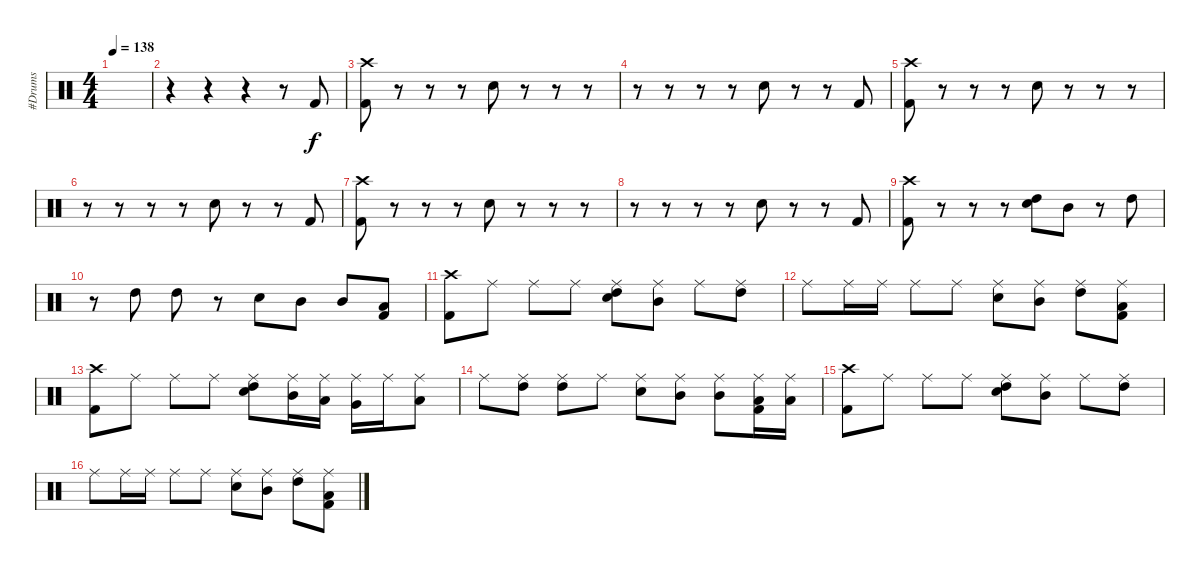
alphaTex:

\track ("#Drums" "#Drums") {instrument percussion}
\staff {score}
\articulation defaults
\ts (4 4)
\tempo 138
\clef neutral
\ks c
|
r.4 r.4 r.4 r.8 "Kick (hit) 2".8 |
("Crash high (hit)" "Kick (hit) 2").8 r.8 r.8 r.8 "Hand Clap (hit)".8 r.8 r.8 r.8 |
r.8 r.8 r.8 r.8 "Hand Clap (hit)".8 r.8 r.8 "Kick (hit) 2".8 |
("Crash high (hit)" "Kick (hit) 2").8 r.8 r.8 r.8 "Hand Clap (hit)".8 r.8 r.8 r.8 |
r.8 r.8 r.8 r.8 "Hand Clap (hit)".8 r.8 r.8 "Kick (hit) 2".8 |
("Crash high (hit)" "Kick (hit) 2").8 r.8 r.8 r.8 "Hand Clap (hit)".8 r.8 r.8 r.8 |
r.8 r.8 r.8 r.8 "Hand Clap (hit)".8 r.8 r.8 "Kick (hit) 2".8 |
("Crash high (hit)" "Kick (hit) 2").8 r.8 r.8 r.8 ("Hand Clap (hit)" "High Tom (hit)").8 "Mid Tom (hit)".8 r.8 "High Tom (hit)".8 |
r.8 "High Tom (hit)".8 "High Tom (hit)".8 r.8 "Hand Clap (hit)".8 "Mid Tom (hit)".8 "Mid Tom (hit)".8 ("Kick (hit) 2" "Low Tom (hit)").8 |
("Crash high (hit)" "Kick (hit) 2").8 "Ride (middle)".8 "Ride (middle)".8 "Ride (middle)".8 ("Ride (middle)" "Hand Clap (hit)" "High Tom (hit)").8 ("Ride (middle)" "Mid Tom (hit)").8 "Ride (middle)".8 ("Ride (middle)" "High Tom (hit)").8 |
"Ride (middle)".8 "Ride (middle)".16 "Ride (middle)".16 "Ride (middle)".8 "Ride (middle)".8 ("Ride (middle)" "Hand Clap (hit)").8 ("Ride (middle)" "Mid Tom (hit)").8 ("Ride (middle)" "High Tom (hit)").8 ("Ride (middle)" "Kick (hit) 2" "Low Tom (hit)").8 |
("Crash high (hit)" "Kick (hit) 2").8 "Ride (middle)".8 "Ride (middle)".8 "Ride (middle)".8 ("Ride (middle)" "Hand Clap (hit)" "High Tom (hit)").8 ("Ride (middle)" "Mid Tom (hit)").16 ("Ride (middle)" "Low Tom (hit)").16 ("Ride (middle)" "Very Low Tom (hit)").16 "Ride (middle)".16 ("Ride (middle)" "Low Floor Tom (hit)").8 |
"Ride (middle)".8 ("Ride (middle)" "High Tom (hit)").8 ("Ride (middle)" "High Tom (hit)").8 "Ride (middle)".8 ("Ride (middle)" "Hand Clap (hit)").8 ("Ride (middle)" "Mid Tom (hit)").8 ("Ride (middle)" "Mid Tom (hit)").8 ("Ride (middle)" "Kick (hit) 2" "Low Tom (hit)").16 ("Ride (middle)" "Low Tom (hit)").16 |
("Crash high (hit)" "Kick (hit) 2").8 "Ride (middle)".8 "Ride (middle)".8 "Ride (middle)".8 ("Ride (middle)" "Hand Clap (hit)" "High Tom (hit)").8 ("Ride (middle)" "Mid Tom (hit)").8 "Ride (middle)".8 ("Ride (middle)" "High Tom (hit)").8 |
"Ride (middle)".8 "Ride (middle)".16 "Ride (middle)".16 "Ride (middle)".8 "Ride (middle)".8 ("Ride (middle)" "Hand Clap (hit)").8 ("Ride (middle)" "Mid Tom (hit)").8 ("Ride (middle)" "High Tom (hit)").8 ("Ride (middle)" "Kick (hit) 2" "Low Tom (hit)").8
